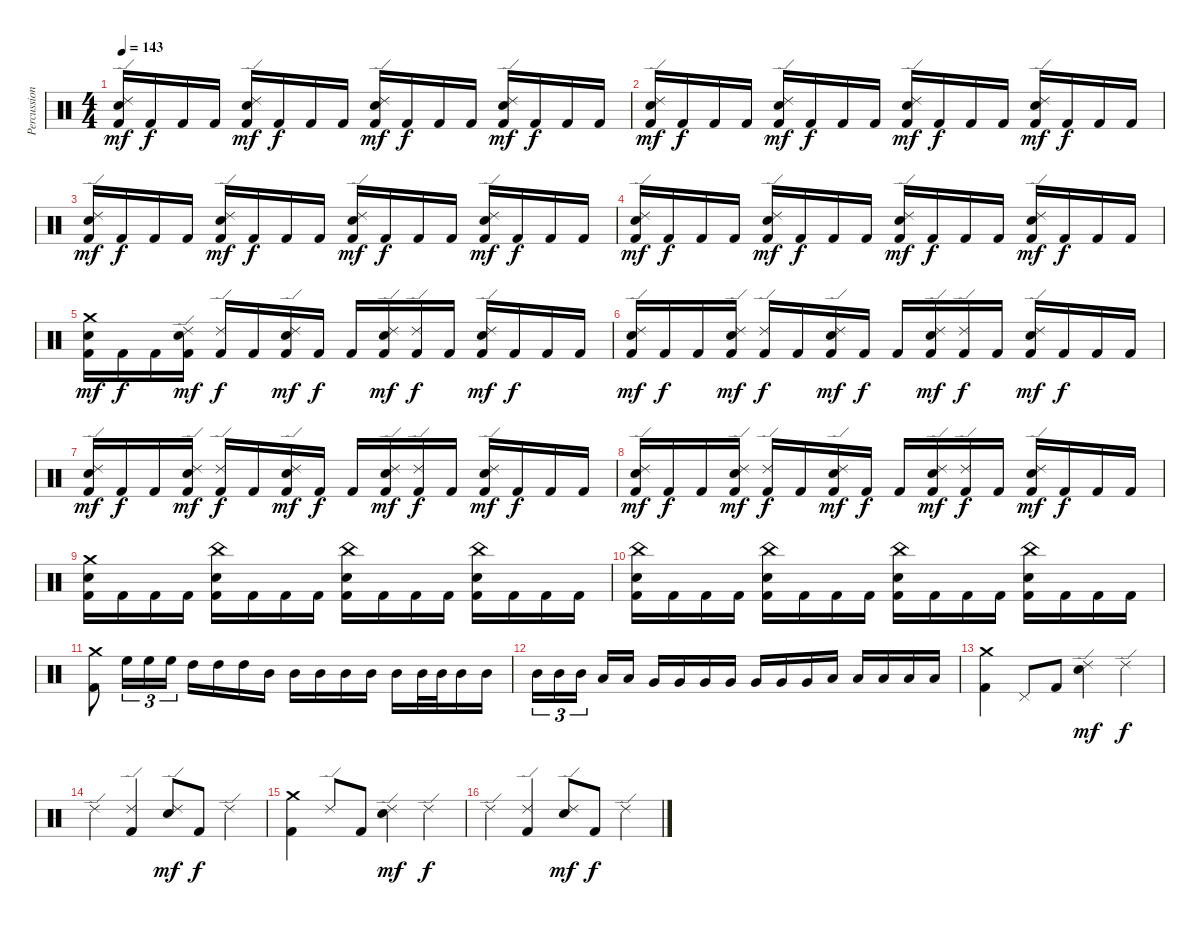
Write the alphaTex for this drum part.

\track ("Percussion" "Percussion") {instrument percussion}
\staff {score}
\articulation defaults
\ts (4 4)
\tempo 143
\clef neutral
\ks c
("Ride (edge) 2" "Electric Snare (hit)" "Kick (hit) 2").16{dy mf} "Kick (hit) 2".16{dy f} "Kick (hit) 2".16 "Kick (hit) 2".16 ("Ride (edge) 2" "Electric Snare (hit)" "Kick (hit) 2").16{dy mf} "Kick (hit) 2".16{dy f} "Kick (hit) 2".16 "Kick (hit) 2".16 ("Ride (edge) 2" "Electric Snare (hit)" "Kick (hit) 2").16{dy mf} "Kick (hit) 2".16{dy f} "Kick (hit) 2".16 "Kick (hit) 2".16 ("Ride (edge) 2" "Electric Snare (hit)" "Kick (hit) 2").16{dy mf} "Kick (hit) 2".16{dy f} "Kick (hit) 2".16 "Kick (hit) 2".16 |
("Ride (edge) 2" "Electric Snare (hit)" "Kick (hit) 2").16{dy mf} "Kick (hit) 2".16{dy f} "Kick (hit) 2".16 "Kick (hit) 2".16 ("Ride (edge) 2" "Electric Snare (hit)" "Kick (hit) 2").16{dy mf} "Kick (hit) 2".16{dy f} "Kick (hit) 2".16 "Kick (hit) 2".16 ("Ride (edge) 2" "Electric Snare (hit)" "Kick (hit) 2").16{dy mf} "Kick (hit) 2".16{dy f} "Kick (hit) 2".16 "Kick (hit) 2".16 ("Ride (edge) 2" "Electric Snare (hit)" "Kick (hit) 2").16{dy mf} "Kick (hit) 2".16{dy f} "Kick (hit) 2".16 "Kick (hit) 2".16 |
("Ride (edge) 2" "Electric Snare (hit)" "Kick (hit) 2").16{dy mf} "Kick (hit) 2".16{dy f} "Kick (hit) 2".16 "Kick (hit) 2".16 ("Ride (edge) 2" "Electric Snare (hit)" "Kick (hit) 2").16{dy mf} "Kick (hit) 2".16{dy f} "Kick (hit) 2".16 "Kick (hit) 2".16 ("Ride (edge) 2" "Electric Snare (hit)" "Kick (hit) 2").16{dy mf} "Kick (hit) 2".16{dy f} "Kick (hit) 2".16 "Kick (hit) 2".16 ("Ride (edge) 2" "Electric Snare (hit)" "Kick (hit) 2").16{dy mf} "Kick (hit) 2".16{dy f} "Kick (hit) 2".16 "Kick (hit) 2".16 |
("Ride (edge) 2" "Electric Snare (hit)" "Kick (hit) 2").16{dy mf} "Kick (hit) 2".16{dy f} "Kick (hit) 2".16 "Kick (hit) 2".16 ("Ride (edge) 2" "Electric Snare (hit)" "Kick (hit) 2").16{dy mf} "Kick (hit) 2".16{dy f} "Kick (hit) 2".16 "Kick (hit) 2".16 ("Ride (edge) 2" "Electric Snare (hit)" "Kick (hit) 2").16{dy mf} "Kick (hit) 2".16{dy f} "Kick (hit) 2".16 "Kick (hit) 2".16 ("Ride (edge) 2" "Electric Snare (hit)" "Kick (hit) 2").16{dy mf} "Kick (hit) 2".16{dy f} "Kick (hit) 2".16 "Kick (hit) 2".16 |
("Crash medium (hit)" "Electric Snare (hit)" "Kick (hit) 2").16{dy mf} "Kick (hit) 2".16{dy f} "Kick (hit) 2".16 ("Ride (edge) 2" "Electric Snare (hit)" "Kick (hit) 2").16{dy mf} ("Ride (edge) 2" "Kick (hit) 2").16{dy f} "Kick (hit) 2".16 ("Ride (edge) 2" "Electric Snare (hit)" "Kick (hit) 2").16{dy mf} "Kick (hit) 2".16{dy f} "Kick (hit) 2".16 ("Ride (edge) 2" "Electric Snare (hit)" "Kick (hit) 2").16{dy mf} ("Ride (edge) 2" "Kick (hit) 2").16{dy f} "Kick (hit) 2".16 ("Ride (edge) 2" "Electric Snare (hit)" "Kick (hit) 2").16{dy mf} "Kick (hit) 2".16{dy f} "Kick (hit) 2".16 "Kick (hit) 2".16 |
("Ride (edge) 2" "Electric Snare (hit)" "Kick (hit) 2").16{dy mf} "Kick (hit) 2".16{dy f} "Kick (hit) 2".16 ("Ride (edge) 2" "Electric Snare (hit)" "Kick (hit) 2").16{dy mf} ("Ride (edge) 2" "Kick (hit) 2").16{dy f} "Kick (hit) 2".16 ("Ride (edge) 2" "Electric Snare (hit)" "Kick (hit) 2").16{dy mf} "Kick (hit) 2".16{dy f} "Kick (hit) 2".16 ("Ride (edge) 2" "Electric Snare (hit)" "Kick (hit) 2").16{dy mf} ("Ride (edge) 2" "Kick (hit) 2").16{dy f} "Kick (hit) 2".16 ("Ride (edge) 2" "Electric Snare (hit)" "Kick (hit) 2").16{dy mf} "Kick (hit) 2".16{dy f} "Kick (hit) 2".16 "Kick (hit) 2".16 |
("Ride (edge) 2" "Electric Snare (hit)" "Kick (hit) 2").16{dy mf} "Kick (hit) 2".16{dy f} "Kick (hit) 2".16 ("Ride (edge) 2" "Electric Snare (hit)" "Kick (hit) 2").16{dy mf} ("Ride (edge) 2" "Kick (hit) 2").16{dy f} "Kick (hit) 2".16 ("Ride (edge) 2" "Electric Snare (hit)" "Kick (hit) 2").16{dy mf} "Kick (hit) 2".16{dy f} "Kick (hit) 2".16 ("Ride (edge) 2" "Electric Snare (hit)" "Kick (hit) 2").16{dy mf} ("Ride (edge) 2" "Kick (hit) 2").16{dy f} "Kick (hit) 2".16 ("Ride (edge) 2" "Electric Snare (hit)" "Kick (hit) 2").16{dy mf} "Kick (hit) 2".16{dy f} "Kick (hit) 2".16 "Kick (hit) 2".16 |
("Ride (edge) 2" "Electric Snare (hit)" "Kick (hit) 2").16{dy mf} "Kick (hit) 2".16{dy f} "Kick (hit) 2".16 ("Ride (edge) 2" "Electric Snare (hit)" "Kick (hit) 2").16{dy mf} ("Ride (edge) 2" "Kick (hit) 2").16{dy f} "Kick (hit) 2".16 ("Ride (edge) 2" "Electric Snare (hit)" "Kick (hit) 2").16{dy mf} "Kick (hit) 2".16{dy f} "Kick (hit) 2".16 ("Ride (edge) 2" "Electric Snare (hit)" "Kick (hit) 2").16{dy mf} ("Ride (edge) 2" "Kick (hit) 2").16{dy f} "Kick (hit) 2".16 ("Ride (edge) 2" "Electric Snare (hit)" "Kick (hit) 2").16{dy mf} "Kick (hit) 2".16{dy f} "Kick (hit) 2".16 "Kick (hit) 2".16 |
("Crash medium (hit)" "Electric Snare (hit)" "Kick (hit) 2").16 "Kick (hit) 2".16 "Kick (hit) 2".16 "Kick (hit) 2".16 ("China (hit)" "Electric Snare (hit)" "Kick (hit) 2").16 "Kick (hit) 2".16 "Kick (hit) 2".16 "Kick (hit) 2".16 ("China (hit)" "Electric Snare (hit)" "Kick (hit) 2").16 "Kick (hit) 2".16 "Kick (hit) 2".16 "Kick (hit) 2".16 ("China (hit)" "Electric Snare (hit)" "Kick (hit) 2").16 "Kick (hit) 2".16 "Kick (hit) 2".16 "Kick (hit) 2".16 |
("China (hit)" "Electric Snare (hit)" "Kick (hit) 2").16 "Kick (hit) 2".16 "Kick (hit) 2".16 "Kick (hit) 2".16 ("China (hit)" "Electric Snare (hit)" "Kick (hit) 2").16 "Kick (hit) 2".16 "Kick (hit) 2".16 "Kick (hit) 2".16 ("China (hit)" "Electric Snare (hit)" "Kick (hit) 2").16 "Kick (hit) 2".16 "Kick (hit) 2".16 "Kick (hit) 2".16 ("China (hit)" "Electric Snare (hit)" "Kick (hit) 2").16 "Kick (hit) 2".16 "Kick (hit) 2".16 "Kick (hit) 2".16 |
("Crash medium (hit)" "Kick (hit) 2").8 "High Floor Tom (hit)".16{tu (3 2)} "High Floor Tom (hit)".16{tu (3 2)} "High Floor Tom (hit)".16{tu (3 2)} "High Tom (hit)".16 "High Tom (hit)".16 "High Tom (hit)".16 "Mid Tom (hit)".16 "Mid Tom (hit)".16 "Mid Tom (hit)".16 "Mid Tom (hit)".16 "Mid Tom (hit)".16 "Mid Tom (hit)".16 "Mid Tom (hit)".32 "Mid Tom (hit)".32 "Mid Tom (hit)".16 "Mid Tom (hit)".16 |
"Mid Tom (hit)".16{tu (3 2)} "Mid Tom (hit)".16{tu (3 2)} "Mid Tom (hit)".16{tu (3 2) beam splitsecondary} "Low Tom (hit)".16 "Low Tom (hit)".16 "Very Low Tom (hit)".16 "Very Low Tom (hit)".16 "Very Low Tom (hit)".16 "Very Low Tom (hit)".16 "Very Low Tom (hit)".16 "Very Low Tom (hit)".16 "Very Low Tom (hit)".16 "Low Floor Tom (hit)".16 "Low Floor Tom (hit)".16 "Low Floor Tom (hit)".16 "Low Floor Tom (hit)".16 "Low Floor Tom (hit)".16 |
("Crash medium (hit)" "Kick (hit) 2").4 "Pedal Hi-Hat (hit)".8 "Kick (hit) 2".8 ("Ride (edge) 2" "Electric Snare (hit)").4{dy mf} "Ride (edge) 2".4{dy f} |
"Ride (edge) 2".4 ("Ride (edge) 2" "Kick (hit) 2").4 ("Ride (edge) 2" "Electric Snare (hit)").8{dy mf} "Kick (hit) 2".8{dy f} "Ride (edge) 2".4 |
("Crash medium (hit)" "Kick (hit) 2").4 "Ride (edge) 2".8 "Kick (hit) 2".8 ("Ride (edge) 2" "Electric Snare (hit)").4{dy mf} "Ride (edge) 2".4{dy f} |
"Ride (edge) 2".4 ("Ride (edge) 2" "Kick (hit) 2").4 ("Ride (edge) 2" "Electric Snare (hit)").8{dy mf} "Kick (hit) 2".8{dy f} "Ride (edge) 2".4
